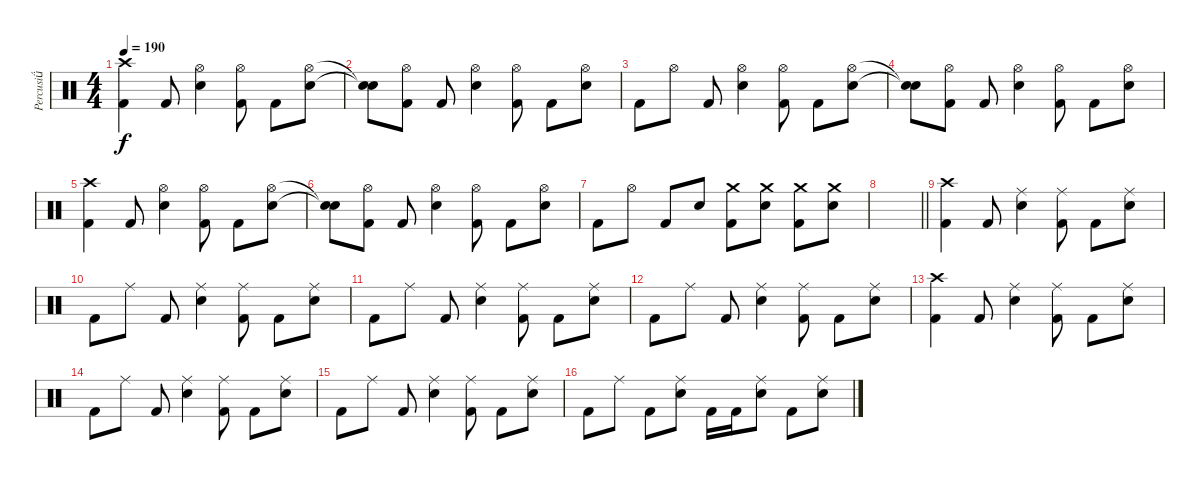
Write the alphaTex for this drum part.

\track ("Percusi" "Percusi") {instrument percussion}
\staff {score}
\articulation defaults
\ts (4 4)
\tempo 190
\clef neutral
\ks c
("Crash high (hit)" "Kick (hit) 2").4{dy f} "Kick (hit) 2".8 ("Hi-Hat (open)" "Electric Snare (hit)").4 ("Hi-Hat (open)" "Kick (hit) 2").8 "Kick (hit) 2".8 ("Hi-Hat (open)" "Electric Snare (hit)").8 |
("Snare (hit)"{t} "Snare (hit)"{t}).8 ("Hi-Hat (open)" "Kick (hit) 2").8 "Kick (hit) 2".8 ("Hi-Hat (open)" "Electric Snare (hit)").4 ("Hi-Hat (open)" "Kick (hit) 2").8 "Kick (hit) 2".8 ("Hi-Hat (open)" "Electric Snare (hit)").8 |
"Kick (hit) 2".8 "Hi-Hat (open)".8 "Kick (hit) 2".8 ("Hi-Hat (open)" "Electric Snare (hit)").4 ("Hi-Hat (open)" "Kick (hit) 2").8 "Kick (hit) 2".8 ("Hi-Hat (open)" "Electric Snare (hit)").8 |
("Snare (hit)"{t} "Snare (hit)"{t}).8 ("Hi-Hat (open)" "Kick (hit) 2").8 "Kick (hit) 2".8 ("Hi-Hat (open)" "Electric Snare (hit)").4 ("Hi-Hat (open)" "Kick (hit) 2").8 "Kick (hit) 2".8 ("Hi-Hat (open)" "Electric Snare (hit)").8 |
("Crash high (hit)" "Kick (hit) 2").4 "Kick (hit) 2".8 ("Hi-Hat (open)" "Electric Snare (hit)").4 ("Hi-Hat (open)" "Kick (hit) 2").8 "Kick (hit) 2".8 ("Hi-Hat (open)" "Electric Snare (hit)").8 |
("Snare (hit)"{t} "Snare (hit)"{t}).8 ("Hi-Hat (open)" "Kick (hit) 2").8 "Kick (hit) 2".8 ("Hi-Hat (open)" "Electric Snare (hit)").4 ("Hi-Hat (open)" "Kick (hit) 2").8 "Kick (hit) 2".8 ("Hi-Hat (open)" "Electric Snare (hit)").8 |
"Kick (hit) 2".8 "Hi-Hat (open)".8 "Kick (hit) 2".8 "Electric Snare (hit)".8 ("Crash medium (hit)" "Kick (hit) 2").8 ("Crash medium (hit)" "Electric Snare (hit)").8 ("Crash medium (hit)" "Kick (hit) 2").8 ("Crash medium (hit)" "Electric Snare (hit)").8 |
\barLineRight lightlight
|
("Crash high (hit)" "Kick (hit) 2").4 "Kick (hit) 2".8 ("Ride (middle)" "Electric Snare (hit)").4 ("Ride (middle)" "Kick (hit) 2").8 "Kick (hit) 2".8 ("Ride (middle)" "Electric Snare (hit)").8 |
"Kick (hit) 2".8 "Ride (middle)".8 "Kick (hit) 2".8 ("Ride (middle)" "Electric Snare (hit)").4 ("Ride (middle)" "Kick (hit) 2").8 "Kick (hit) 2".8 ("Ride (middle)" "Electric Snare (hit)").8 |
"Kick (hit) 2".8 "Ride (middle)".8 "Kick (hit) 2".8 ("Ride (middle)" "Electric Snare (hit)").4 ("Ride (middle)" "Kick (hit) 2").8 "Kick (hit) 2".8 ("Ride (middle)" "Electric Snare (hit)").8 |
"Kick (hit) 2".8 "Ride (middle)".8 "Kick (hit) 2".8 ("Ride (middle)" "Electric Snare (hit)").4 ("Ride (middle)" "Kick (hit) 2").8 "Kick (hit) 2".8 ("Ride (middle)" "Electric Snare (hit)").8 |
("Crash high (hit)" "Kick (hit) 2").4 "Kick (hit) 2".8 ("Ride (middle)" "Electric Snare (hit)").4 ("Ride (middle)" "Kick (hit) 2").8 "Kick (hit) 2".8 ("Ride (middle)" "Electric Snare (hit)").8 |
"Kick (hit) 2".8 "Ride (middle)".8 "Kick (hit) 2".8 ("Ride (middle)" "Electric Snare (hit)").4 ("Ride (middle)" "Kick (hit) 2").8 "Kick (hit) 2".8 ("Ride (middle)" "Electric Snare (hit)").8 |
"Kick (hit) 2".8 "Ride (middle)".8 "Kick (hit) 2".8 ("Ride (middle)" "Electric Snare (hit)").4 ("Ride (middle)" "Kick (hit) 2").8 "Kick (hit) 2".8 ("Ride (middle)" "Electric Snare (hit)").8 |
"Kick (hit) 2".8 "Ride (middle)".8 "Kick (hit) 2".8 ("Ride (middle)" "Electric Snare (hit)").8 "Kick (hit) 2".16 "Kick (hit) 2".16 ("Ride (middle)" "Electric Snare (hit)").8 "Kick (hit) 2".8 ("Ride (middle)" "Electric Snare (hit)").8
